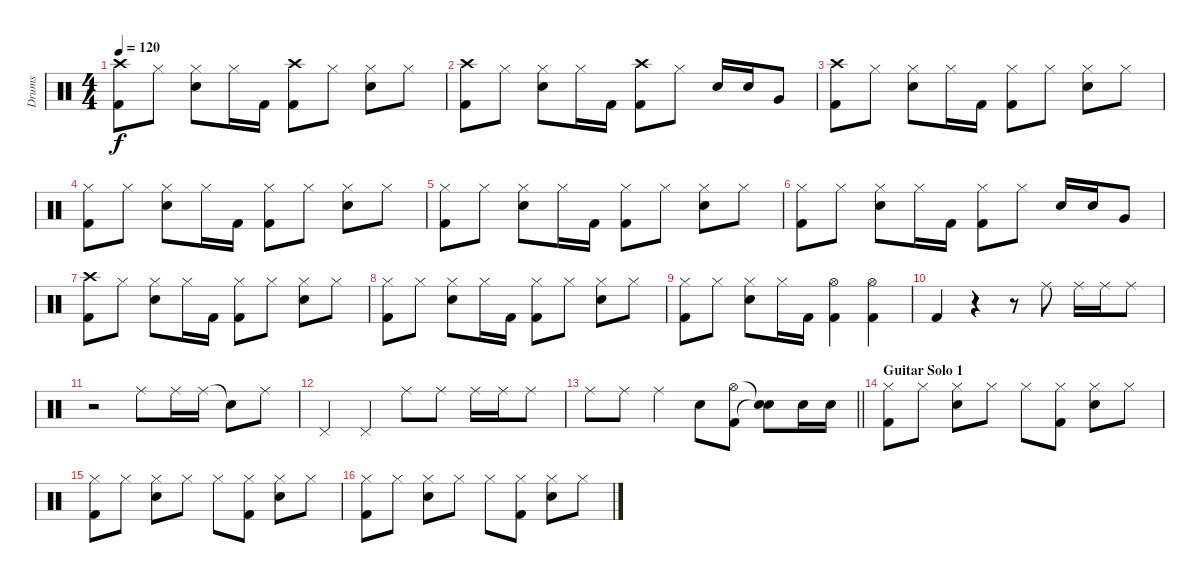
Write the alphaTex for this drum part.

\track ("Drums" "Drums") {instrument percussion}
\staff {score}
\articulation defaults
\ts (4 4)
\tempo 120
\clef neutral
\ks c
("Crash high (hit)" "Kick (hit) 2").8{dy f} "Hi-Hat (closed)".8 ("Hi-Hat (closed)" "Snare (hit) 2").8 "Hi-Hat (closed)".16 "Kick (hit) 2".16 ("Crash high (hit)" "Kick (hit) 2").8 "Hi-Hat (closed)".8 ("Hi-Hat (closed)" "Snare (hit) 2").8 "Hi-Hat (closed)".8 |
("Crash high (hit)" "Kick (hit) 2").8 "Hi-Hat (closed)".8 ("Hi-Hat (closed)" "Snare (hit) 2").8 "Hi-Hat (closed)".16 "Kick (hit) 2".16 ("Crash high (hit)" "Kick (hit) 2").8 "Hi-Hat (closed)".8 "Snare (hit) 2".16 "Snare (hit) 2".16 "Very Low Tom (hit)".8 |
("Crash high (hit)" "Kick (hit) 2").8 "Hi-Hat (closed)".8 ("Hi-Hat (closed)" "Snare (hit) 2").8 "Hi-Hat (closed)".16 "Kick (hit) 2".16 ("Hi-Hat (closed)" "Kick (hit) 2").8 "Hi-Hat (closed)".8 ("Hi-Hat (closed)" "Snare (hit) 2").8 "Hi-Hat (closed)".8 |
("Hi-Hat (closed)" "Kick (hit) 2").8 "Hi-Hat (closed)".8 ("Hi-Hat (closed)" "Snare (hit) 2").8 "Hi-Hat (closed)".16 "Kick (hit) 2".16 ("Hi-Hat (closed)" "Kick (hit) 2").8 "Hi-Hat (closed)".8 ("Hi-Hat (closed)" "Snare (hit) 2").8 "Hi-Hat (closed)".8 |
("Hi-Hat (closed)" "Kick (hit) 2").8 "Hi-Hat (closed)".8 ("Hi-Hat (closed)" "Snare (hit) 2").8 "Hi-Hat (closed)".16 "Kick (hit) 2".16 ("Hi-Hat (closed)" "Kick (hit) 2").8 "Hi-Hat (closed)".8 ("Hi-Hat (closed)" "Snare (hit) 2").8 "Hi-Hat (closed)".8 |
("Hi-Hat (closed)" "Kick (hit) 2").8 "Hi-Hat (closed)".8 ("Hi-Hat (closed)" "Snare (hit) 2").8 "Hi-Hat (closed)".16 "Kick (hit) 2".16 ("Hi-Hat (closed)" "Kick (hit) 2").8 "Hi-Hat (closed)".8 "Snare (hit) 2".16 "Snare (hit) 2".16 "Very Low Tom (hit)".8 |
("Crash high (hit)" "Kick (hit) 2").8 "Hi-Hat (closed)".8 ("Hi-Hat (closed)" "Snare (hit) 2").8 "Hi-Hat (closed)".16 "Kick (hit) 2".16 ("Hi-Hat (closed)" "Kick (hit) 2").8 "Hi-Hat (closed)".8 ("Hi-Hat (closed)" "Snare (hit) 2").8 "Hi-Hat (closed)".8 |
("Hi-Hat (closed)" "Kick (hit) 2").8 "Hi-Hat (closed)".8 ("Hi-Hat (closed)" "Snare (hit) 2").8 "Hi-Hat (closed)".16 "Kick (hit) 2".16 ("Hi-Hat (closed)" "Kick (hit) 2").8 "Hi-Hat (closed)".8 ("Hi-Hat (closed)" "Snare (hit) 2").8 "Hi-Hat (closed)".8 |
("Hi-Hat (closed)" "Kick (hit) 2").8 "Hi-Hat (closed)".8 ("Hi-Hat (closed)" "Snare (hit) 2").8 "Hi-Hat (closed)".16 "Kick (hit) 2".16 ("Hi-Hat (open)" "Kick (hit) 2").4 ("Hi-Hat (open)" "Kick (hit) 2").4 |
"Kick (hit) 2".4 r.4 r.8 "Ride (middle)".8 "Ride (middle)".16 "Ride (middle)".16 "Ride (middle)".8 |
r.2 "Ride (middle)".8 "Ride (middle)".16 "Ride (middle)".16 "Snare (hit)"{t}.8 "Ride (middle)".8 |
"Pedal Hi-Hat (hit)".4 "Pedal Hi-Hat (hit)".4 "Ride (middle)".8 "Ride (middle)".8 "Ride (middle)".16 "Ride (middle)".16 "Ride (middle)".8 |
\barLineRight lightlight "Ride (middle)".8 "Ride (middle)".8 "Ride (middle)".4 "Snare (hit) 2".8
("Hi-Hat (open)" "Kick (hit) 2").8 ("Snare (hit)"{t} "Snare (hit)"{t}).8 "Snare (hit) 2".16 "Snare (hit) 2".16 |
\section ("" "Guitar Solo 1")
("Hi-Hat (closed)" "Kick (hit) 2").8 "Hi-Hat (closed)".8 ("Hi-Hat (closed)" "Snare (hit) 2").8 "Hi-Hat (closed)".8 "Hi-Hat (closed)".8 ("Hi-Hat (closed)" "Kick (hit) 2").8 ("Hi-Hat (closed)" "Snare (hit) 2").8 "Hi-Hat (closed)".8 |
("Hi-Hat (closed)" "Kick (hit) 2").8 "Hi-Hat (closed)".8 ("Hi-Hat (closed)" "Snare (hit) 2").8 "Hi-Hat (closed)".8 "Hi-Hat (closed)".8 ("Hi-Hat (closed)" "Kick (hit) 2").8 ("Hi-Hat (closed)" "Snare (hit) 2").8 "Hi-Hat (closed)".8 |
("Hi-Hat (closed)" "Kick (hit) 2").8 "Hi-Hat (closed)".8 ("Hi-Hat (closed)" "Snare (hit) 2").8 "Hi-Hat (closed)".8 "Hi-Hat (closed)".8 ("Hi-Hat (closed)" "Kick (hit) 2").8 ("Hi-Hat (closed)" "Snare (hit) 2").8 "Hi-Hat (closed)".8
